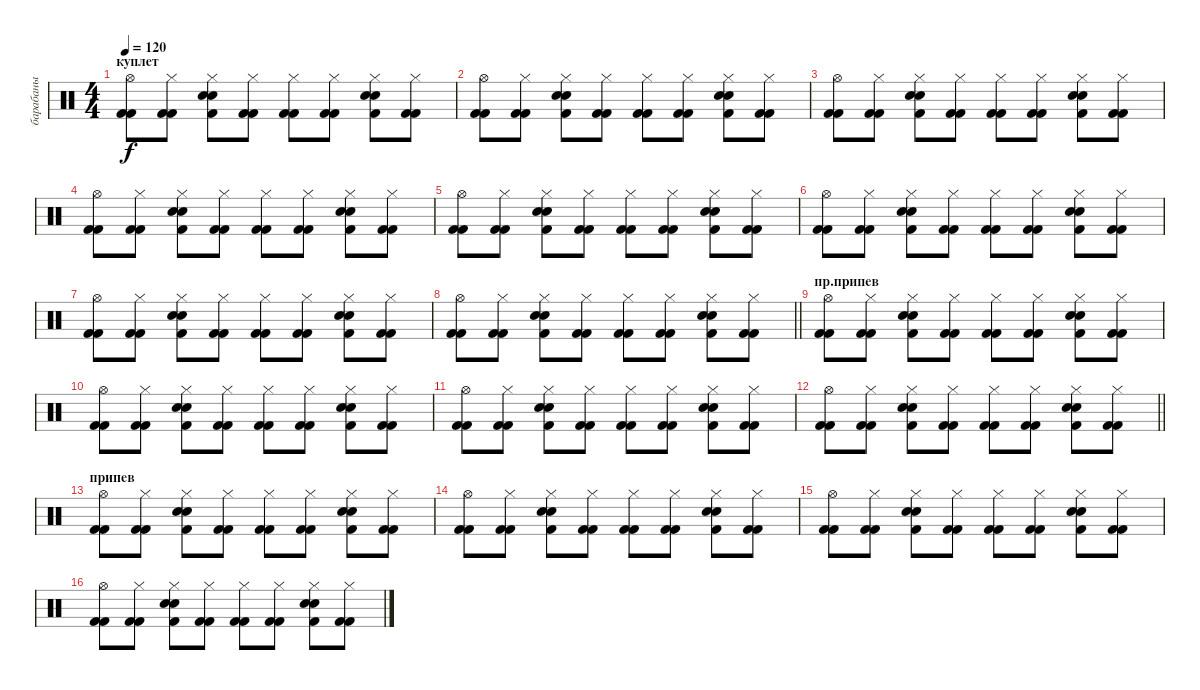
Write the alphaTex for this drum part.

\track ("барабаны" "барабаны") {instrument percussion}
\staff {score}
\articulation defaults
\ts (4 4)
\section ("" "куплет")
\tempo 120
\clef neutral
\ks c
("Hi-Hat (open)" "Kick (hit) 2" "Kick (hit) 2").8{dy f} ("Hi-Hat (closed)" "Kick (hit) 2" "Kick (hit) 2").8 ("Hi-Hat (closed)" "Snare (hit) 2" "Kick (hit) 2" "Electric Snare (hit)").8 ("Hi-Hat (closed)" "Kick (hit) 2" "Kick (hit) 2").8 ("Hi-Hat (closed)" "Kick (hit) 2" "Kick (hit) 2").8 ("Hi-Hat (closed)" "Kick (hit) 2" "Kick (hit) 2").8 ("Hi-Hat (closed)" "Snare (hit) 2" "Kick (hit) 2" "Electric Snare (hit)").8 ("Hi-Hat (closed)" "Kick (hit) 2" "Kick (hit) 2").8 |
("Hi-Hat (open)" "Kick (hit) 2" "Kick (hit) 2").8 ("Hi-Hat (closed)" "Kick (hit) 2" "Kick (hit) 2").8 ("Hi-Hat (closed)" "Snare (hit) 2" "Kick (hit) 2" "Electric Snare (hit)").8 ("Hi-Hat (closed)" "Kick (hit) 2" "Kick (hit) 2").8 ("Hi-Hat (closed)" "Kick (hit) 2" "Kick (hit) 2").8 ("Hi-Hat (closed)" "Kick (hit) 2" "Kick (hit) 2").8 ("Hi-Hat (closed)" "Snare (hit) 2" "Kick (hit) 2" "Electric Snare (hit)").8 ("Hi-Hat (closed)" "Kick (hit) 2" "Kick (hit) 2").8 |
("Hi-Hat (open)" "Kick (hit) 2" "Kick (hit) 2").8 ("Hi-Hat (closed)" "Kick (hit) 2" "Kick (hit) 2").8 ("Hi-Hat (closed)" "Snare (hit) 2" "Kick (hit) 2" "Electric Snare (hit)").8 ("Hi-Hat (closed)" "Kick (hit) 2" "Kick (hit) 2").8 ("Hi-Hat (closed)" "Kick (hit) 2" "Kick (hit) 2").8 ("Hi-Hat (closed)" "Kick (hit) 2" "Kick (hit) 2").8 ("Hi-Hat (closed)" "Snare (hit) 2" "Kick (hit) 2" "Electric Snare (hit)").8 ("Hi-Hat (closed)" "Kick (hit) 2" "Kick (hit) 2").8 |
("Hi-Hat (open)" "Kick (hit) 2" "Kick (hit) 2").8 ("Hi-Hat (closed)" "Kick (hit) 2" "Kick (hit) 2").8 ("Hi-Hat (closed)" "Snare (hit) 2" "Kick (hit) 2" "Electric Snare (hit)").8 ("Hi-Hat (closed)" "Kick (hit) 2" "Kick (hit) 2").8 ("Hi-Hat (closed)" "Kick (hit) 2" "Kick (hit) 2").8 ("Hi-Hat (closed)" "Kick (hit) 2" "Kick (hit) 2").8 ("Hi-Hat (closed)" "Snare (hit) 2" "Kick (hit) 2" "Electric Snare (hit)").8 ("Hi-Hat (closed)" "Kick (hit) 2" "Kick (hit) 2").8 |
("Hi-Hat (open)" "Kick (hit) 2" "Kick (hit) 2").8 ("Hi-Hat (closed)" "Kick (hit) 2" "Kick (hit) 2").8 ("Hi-Hat (closed)" "Snare (hit) 2" "Kick (hit) 2" "Electric Snare (hit)").8 ("Hi-Hat (closed)" "Kick (hit) 2" "Kick (hit) 2").8 ("Hi-Hat (closed)" "Kick (hit) 2" "Kick (hit) 2").8 ("Hi-Hat (closed)" "Kick (hit) 2" "Kick (hit) 2").8 ("Hi-Hat (closed)" "Snare (hit) 2" "Kick (hit) 2" "Electric Snare (hit)").8 ("Hi-Hat (closed)" "Kick (hit) 2" "Kick (hit) 2").8 |
("Hi-Hat (open)" "Kick (hit) 2" "Kick (hit) 2").8 ("Hi-Hat (closed)" "Kick (hit) 2" "Kick (hit) 2").8 ("Hi-Hat (closed)" "Snare (hit) 2" "Kick (hit) 2" "Electric Snare (hit)").8 ("Hi-Hat (closed)" "Kick (hit) 2" "Kick (hit) 2").8 ("Hi-Hat (closed)" "Kick (hit) 2" "Kick (hit) 2").8 ("Hi-Hat (closed)" "Kick (hit) 2" "Kick (hit) 2").8 ("Hi-Hat (closed)" "Snare (hit) 2" "Kick (hit) 2" "Electric Snare (hit)").8 ("Hi-Hat (closed)" "Kick (hit) 2" "Kick (hit) 2").8 |
("Hi-Hat (open)" "Kick (hit) 2" "Kick (hit) 2").8 ("Hi-Hat (closed)" "Kick (hit) 2" "Kick (hit) 2").8 ("Hi-Hat (closed)" "Snare (hit) 2" "Kick (hit) 2" "Electric Snare (hit)").8 ("Hi-Hat (closed)" "Kick (hit) 2" "Kick (hit) 2").8 ("Hi-Hat (closed)" "Kick (hit) 2" "Kick (hit) 2").8 ("Hi-Hat (closed)" "Kick (hit) 2" "Kick (hit) 2").8 ("Hi-Hat (closed)" "Snare (hit) 2" "Kick (hit) 2" "Electric Snare (hit)").8 ("Hi-Hat (closed)" "Kick (hit) 2" "Kick (hit) 2").8 |
\barLineRight lightlight
("Hi-Hat (open)" "Kick (hit) 2" "Kick (hit) 2").8 ("Hi-Hat (closed)" "Kick (hit) 2" "Kick (hit) 2").8 ("Hi-Hat (closed)" "Snare (hit) 2" "Kick (hit) 2" "Electric Snare (hit)").8 ("Hi-Hat (closed)" "Kick (hit) 2" "Kick (hit) 2").8 ("Hi-Hat (closed)" "Kick (hit) 2" "Kick (hit) 2").8 ("Hi-Hat (closed)" "Kick (hit) 2" "Kick (hit) 2").8 ("Hi-Hat (closed)" "Snare (hit) 2" "Kick (hit) 2" "Electric Snare (hit)").8 ("Hi-Hat (closed)" "Kick (hit) 2" "Kick (hit) 2").8 |
\section ("" "пр.припев")
("Hi-Hat (open)" "Kick (hit) 2" "Kick (hit) 2").8 ("Hi-Hat (closed)" "Kick (hit) 2" "Kick (hit) 2").8 ("Hi-Hat (closed)" "Snare (hit) 2" "Kick (hit) 2" "Electric Snare (hit)").8 ("Hi-Hat (closed)" "Kick (hit) 2" "Kick (hit) 2").8 ("Hi-Hat (closed)" "Kick (hit) 2" "Kick (hit) 2").8 ("Hi-Hat (closed)" "Kick (hit) 2" "Kick (hit) 2").8 ("Hi-Hat (closed)" "Snare (hit) 2" "Kick (hit) 2" "Electric Snare (hit)").8 ("Hi-Hat (closed)" "Kick (hit) 2" "Kick (hit) 2").8 |
("Hi-Hat (open)" "Kick (hit) 2" "Kick (hit) 2").8 ("Hi-Hat (closed)" "Kick (hit) 2" "Kick (hit) 2").8 ("Hi-Hat (closed)" "Snare (hit) 2" "Kick (hit) 2" "Electric Snare (hit)").8 ("Hi-Hat (closed)" "Kick (hit) 2" "Kick (hit) 2").8 ("Hi-Hat (closed)" "Kick (hit) 2" "Kick (hit) 2").8 ("Hi-Hat (closed)" "Kick (hit) 2" "Kick (hit) 2").8 ("Hi-Hat (closed)" "Snare (hit) 2" "Kick (hit) 2" "Electric Snare (hit)").8 ("Hi-Hat (closed)" "Kick (hit) 2" "Kick (hit) 2").8 |
("Hi-Hat (open)" "Kick (hit) 2" "Kick (hit) 2").8 ("Hi-Hat (closed)" "Kick (hit) 2" "Kick (hit) 2").8 ("Hi-Hat (closed)" "Snare (hit) 2" "Kick (hit) 2" "Electric Snare (hit)").8 ("Hi-Hat (closed)" "Kick (hit) 2" "Kick (hit) 2").8 ("Hi-Hat (closed)" "Kick (hit) 2" "Kick (hit) 2").8 ("Hi-Hat (closed)" "Kick (hit) 2" "Kick (hit) 2").8 ("Hi-Hat (closed)" "Snare (hit) 2" "Kick (hit) 2" "Electric Snare (hit)").8 ("Hi-Hat (closed)" "Kick (hit) 2" "Kick (hit) 2").8 |
\barLineRight lightlight
("Hi-Hat (open)" "Kick (hit) 2" "Kick (hit) 2").8 ("Hi-Hat (closed)" "Kick (hit) 2" "Kick (hit) 2").8 ("Hi-Hat (closed)" "Snare (hit) 2" "Kick (hit) 2" "Electric Snare (hit)").8 ("Hi-Hat (closed)" "Kick (hit) 2" "Kick (hit) 2").8 ("Hi-Hat (closed)" "Kick (hit) 2" "Kick (hit) 2").8 ("Hi-Hat (closed)" "Kick (hit) 2" "Kick (hit) 2").8 ("Hi-Hat (closed)" "Snare (hit) 2" "Kick (hit) 2" "Electric Snare (hit)").8 ("Hi-Hat (closed)" "Kick (hit) 2" "Kick (hit) 2").8 |
\section ("" "припев")
("Hi-Hat (open)" "Kick (hit) 2" "Kick (hit) 2").8 ("Hi-Hat (closed)" "Kick (hit) 2" "Kick (hit) 2").8 ("Hi-Hat (closed)" "Snare (hit) 2" "Kick (hit) 2" "Electric Snare (hit)").8 ("Hi-Hat (closed)" "Kick (hit) 2" "Kick (hit) 2").8 ("Hi-Hat (closed)" "Kick (hit) 2" "Kick (hit) 2").8 ("Hi-Hat (closed)" "Kick (hit) 2" "Kick (hit) 2").8 ("Hi-Hat (closed)" "Snare (hit) 2" "Kick (hit) 2" "Electric Snare (hit)").8 ("Hi-Hat (closed)" "Kick (hit) 2" "Kick (hit) 2").8 |
("Hi-Hat (open)" "Kick (hit) 2" "Kick (hit) 2").8 ("Hi-Hat (closed)" "Kick (hit) 2" "Kick (hit) 2").8 ("Hi-Hat (closed)" "Snare (hit) 2" "Kick (hit) 2" "Electric Snare (hit)").8 ("Hi-Hat (closed)" "Kick (hit) 2" "Kick (hit) 2").8 ("Hi-Hat (closed)" "Kick (hit) 2" "Kick (hit) 2").8 ("Hi-Hat (closed)" "Kick (hit) 2" "Kick (hit) 2").8 ("Hi-Hat (closed)" "Snare (hit) 2" "Kick (hit) 2" "Electric Snare (hit)").8 ("Hi-Hat (closed)" "Kick (hit) 2" "Kick (hit) 2").8 |
("Hi-Hat (open)" "Kick (hit) 2" "Kick (hit) 2").8 ("Hi-Hat (closed)" "Kick (hit) 2" "Kick (hit) 2").8 ("Hi-Hat (closed)" "Snare (hit) 2" "Kick (hit) 2" "Electric Snare (hit)").8 ("Hi-Hat (closed)" "Kick (hit) 2" "Kick (hit) 2").8 ("Hi-Hat (closed)" "Kick (hit) 2" "Kick (hit) 2").8 ("Hi-Hat (closed)" "Kick (hit) 2" "Kick (hit) 2").8 ("Hi-Hat (closed)" "Snare (hit) 2" "Kick (hit) 2" "Electric Snare (hit)").8 ("Hi-Hat (closed)" "Kick (hit) 2" "Kick (hit) 2").8 |
("Hi-Hat (open)" "Kick (hit) 2" "Kick (hit) 2").8 ("Hi-Hat (closed)" "Kick (hit) 2" "Kick (hit) 2").8 ("Hi-Hat (closed)" "Snare (hit) 2" "Kick (hit) 2" "Electric Snare (hit)").8 ("Hi-Hat (closed)" "Kick (hit) 2" "Kick (hit) 2").8 ("Hi-Hat (closed)" "Kick (hit) 2" "Kick (hit) 2").8 ("Hi-Hat (closed)" "Kick (hit) 2" "Kick (hit) 2").8 ("Hi-Hat (closed)" "Snare (hit) 2" "Kick (hit) 2" "Electric Snare (hit)").8 ("Hi-Hat (closed)" "Kick (hit) 2" "Kick (hit) 2").8
